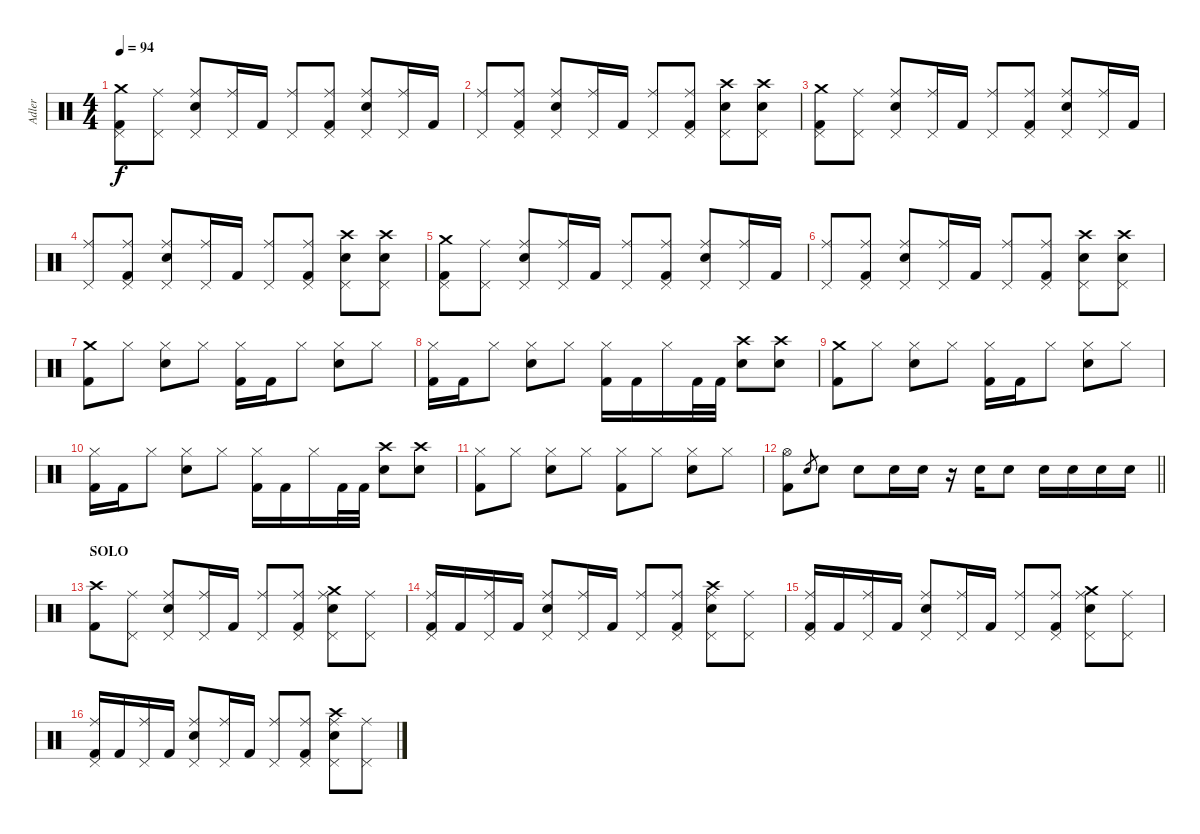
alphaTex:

\track ("Adler" "Adler") {instrument percussion}
\staff {score}
\articulation defaults
\ts (4 4)
\tempo 94
\clef neutral
\ks c
("Crash medium (hit)" "Kick (hit) 2" "Pedal Hi-Hat (hit)").8{dy f} ("Pedal Hi-Hat (hit)" "Ride (middle)").8 ("Snare (hit) 2" "Pedal Hi-Hat (hit)" "Ride (middle)").8 ("Pedal Hi-Hat (hit)" "Ride (middle)").16 "Kick (hit) 2".16 ("Pedal Hi-Hat (hit)" "Ride (middle)").8 ("Kick (hit) 2" "Pedal Hi-Hat (hit)" "Ride (middle)").8 ("Snare (hit) 2" "Pedal Hi-Hat (hit)" "Ride (middle)").8 ("Pedal Hi-Hat (hit)" "Ride (middle)").16 "Kick (hit) 2".16 |
("Pedal Hi-Hat (hit)" "Ride (middle)").8 ("Kick (hit) 2" "Pedal Hi-Hat (hit)" "Ride (middle)").8 ("Snare (hit) 2" "Pedal Hi-Hat (hit)" "Ride (middle)").8 ("Pedal Hi-Hat (hit)" "Ride (middle)").16 "Kick (hit) 2".16 ("Pedal Hi-Hat (hit)" "Ride (middle)").8 ("Kick (hit) 2" "Pedal Hi-Hat (hit)" "Ride (middle)").8 ("Crash high (hit)" "Snare (hit) 2" "Pedal Hi-Hat (hit)").8 ("Crash high (hit)" "Snare (hit) 2" "Pedal Hi-Hat (hit)").8 |
("Crash medium (hit)" "Kick (hit) 2" "Pedal Hi-Hat (hit)").8 ("Pedal Hi-Hat (hit)" "Ride (middle)").8 ("Snare (hit) 2" "Pedal Hi-Hat (hit)" "Ride (middle)").8 ("Pedal Hi-Hat (hit)" "Ride (middle)").16 "Kick (hit) 2".16 ("Pedal Hi-Hat (hit)" "Ride (middle)").8 ("Kick (hit) 2" "Pedal Hi-Hat (hit)" "Ride (middle)").8 ("Snare (hit) 2" "Pedal Hi-Hat (hit)" "Ride (middle)").8 ("Pedal Hi-Hat (hit)" "Ride (middle)").16 "Kick (hit) 2".16 |
("Pedal Hi-Hat (hit)" "Ride (middle)").8 ("Kick (hit) 2" "Pedal Hi-Hat (hit)" "Ride (middle)").8 ("Snare (hit) 2" "Pedal Hi-Hat (hit)" "Ride (middle)").8 ("Pedal Hi-Hat (hit)" "Ride (middle)").16 "Kick (hit) 2".16 ("Pedal Hi-Hat (hit)" "Ride (middle)").8 ("Kick (hit) 2" "Pedal Hi-Hat (hit)" "Ride (middle)").8 ("Crash high (hit)" "Snare (hit) 2" "Pedal Hi-Hat (hit)").8 ("Crash high (hit)" "Snare (hit) 2" "Pedal Hi-Hat (hit)").8 |
("Crash medium (hit)" "Kick (hit) 2" "Pedal Hi-Hat (hit)").8 ("Pedal Hi-Hat (hit)" "Ride (middle)").8 ("Snare (hit) 2" "Pedal Hi-Hat (hit)" "Ride (middle)").8 ("Pedal Hi-Hat (hit)" "Ride (middle)").16 "Kick (hit) 2".16 ("Pedal Hi-Hat (hit)" "Ride (middle)").8 ("Kick (hit) 2" "Pedal Hi-Hat (hit)" "Ride (middle)").8 ("Snare (hit) 2" "Pedal Hi-Hat (hit)" "Ride (middle)").8 ("Pedal Hi-Hat (hit)" "Ride (middle)").16 "Kick (hit) 2".16 |
("Pedal Hi-Hat (hit)" "Ride (middle)").8 ("Kick (hit) 2" "Pedal Hi-Hat (hit)" "Ride (middle)").8 ("Snare (hit) 2" "Pedal Hi-Hat (hit)" "Ride (middle)").8 ("Pedal Hi-Hat (hit)" "Ride (middle)").16 "Kick (hit) 2".16 ("Pedal Hi-Hat (hit)" "Ride (middle)").8 ("Kick (hit) 2" "Pedal Hi-Hat (hit)" "Ride (middle)").8 ("Crash high (hit)" "Snare (hit) 2" "Pedal Hi-Hat (hit)").8 ("Crash high (hit)" "Snare (hit) 2" "Pedal Hi-Hat (hit)").8 |
("Crash medium (hit)" "Kick (hit) 2").8 "Hi-Hat (closed)".8 ("Hi-Hat (closed)" "Snare (hit) 2").8 "Hi-Hat (closed)".8 ("Hi-Hat (closed)" "Kick (hit) 2").16 "Kick (hit) 2".16 "Hi-Hat (closed)".8 ("Hi-Hat (closed)" "Snare (hit) 2").8 "Hi-Hat (closed)".8 |
("Hi-Hat (closed)" "Kick (hit) 2").16 "Kick (hit) 2".16 "Hi-Hat (closed)".8 ("Hi-Hat (closed)" "Snare (hit) 2").8 "Hi-Hat (closed)".8 ("Hi-Hat (closed)" "Kick (hit) 2").16 "Kick (hit) 2".16 "Hi-Hat (closed)".16 "Kick (hit) 2".32 "Kick (hit) 2".32 ("Crash high (hit)" "Snare (hit) 2").8 ("Crash high (hit)" "Snare (hit) 2").8 |
("Crash medium (hit)" "Kick (hit) 2").8 "Hi-Hat (closed)".8 ("Hi-Hat (closed)" "Snare (hit) 2").8 "Hi-Hat (closed)".8 ("Hi-Hat (closed)" "Kick (hit) 2").16 "Kick (hit) 2".16 "Hi-Hat (closed)".8 ("Hi-Hat (closed)" "Snare (hit) 2").8 "Hi-Hat (closed)".8 |
("Hi-Hat (closed)" "Kick (hit) 2").16 "Kick (hit) 2".16 "Hi-Hat (closed)".8 ("Hi-Hat (closed)" "Snare (hit) 2").8 "Hi-Hat (closed)".8 ("Hi-Hat (closed)" "Kick (hit) 2").16 "Kick (hit) 2".16 "Hi-Hat (closed)".16 "Kick (hit) 2".32 "Kick (hit) 2".32 ("Crash high (hit)" "Snare (hit) 2").8 ("Crash high (hit)" "Snare (hit) 2").8 |
("Hi-Hat (closed)" "Kick (hit) 2").8 "Hi-Hat (closed)".8 ("Hi-Hat (closed)" "Snare (hit) 2").8 "Hi-Hat (closed)".8 ("Hi-Hat (closed)" "Kick (hit) 2").8 "Hi-Hat (closed)".8 ("Hi-Hat (closed)" "Snare (hit) 2").8 "Hi-Hat (closed)".8 |
\barLineRight lightlight
("Hi-Hat (open)" "Kick (hit) 2").8 "Snare (hit) 2".8{gr} "Snare (hit) 2".8 "Snare (hit) 2".8 "Snare (hit) 2".16 "Snare (hit) 2".16 r.16 "Snare (hit) 2".16 "Snare (hit) 2".8 "Snare (hit) 2".16 "Snare (hit) 2".16 "Snare (hit) 2".16 "Snare (hit) 2".16 |
\section ("" "SOLO")
("Crash high (hit)" "Kick (hit) 2").8 ("Pedal Hi-Hat (hit)" "Ride (middle)").8 ("Snare (hit) 2" "Pedal Hi-Hat (hit)" "Ride (middle)").8 ("Pedal Hi-Hat (hit)" "Ride (middle)").16 "Kick (hit) 2".16 ("Pedal Hi-Hat (hit)" "Ride (middle)").8 ("Kick (hit) 2" "Pedal Hi-Hat (hit)" "Ride (middle)").8 ("Crash medium (hit)" "Snare (hit) 2" "Pedal Hi-Hat (hit)" "Ride (middle)").8 ("Pedal Hi-Hat (hit)" "Ride (middle)").8 |
("Kick (hit) 2" "Pedal Hi-Hat (hit)" "Ride (middle)").16 "Kick (hit) 2".16 ("Pedal Hi-Hat (hit)" "Ride (middle)").16 "Kick (hit) 2".16 ("Snare (hit) 2" "Pedal Hi-Hat (hit)" "Ride (middle)").8 ("Pedal Hi-Hat (hit)" "Ride (middle)").16 "Kick (hit) 2".16 ("Pedal Hi-Hat (hit)" "Ride (middle)").8 ("Kick (hit) 2" "Pedal Hi-Hat (hit)" "Ride (middle)").8 ("Crash high (hit)" "Snare (hit) 2" "Pedal Hi-Hat (hit)" "Ride (middle)").8 ("Pedal Hi-Hat (hit)" "Ride (middle)").8 |
("Kick (hit) 2" "Pedal Hi-Hat (hit)" "Ride (middle)").16 "Kick (hit) 2".16 ("Pedal Hi-Hat (hit)" "Ride (middle)").16 "Kick (hit) 2".16 ("Snare (hit) 2" "Pedal Hi-Hat (hit)" "Ride (middle)").8 ("Pedal Hi-Hat (hit)" "Ride (middle)").16 "Kick (hit) 2".16 ("Pedal Hi-Hat (hit)" "Ride (middle)").8 ("Kick (hit) 2" "Pedal Hi-Hat (hit)" "Ride (middle)").8 ("Crash medium (hit)" "Snare (hit) 2" "Pedal Hi-Hat (hit)" "Ride (middle)").8 ("Pedal Hi-Hat (hit)" "Ride (middle)").8 |
("Kick (hit) 2" "Pedal Hi-Hat (hit)" "Ride (middle)").16 "Kick (hit) 2".16 ("Pedal Hi-Hat (hit)" "Ride (middle)").16 "Kick (hit) 2".16 ("Snare (hit) 2" "Pedal Hi-Hat (hit)" "Ride (middle)").8 ("Pedal Hi-Hat (hit)" "Ride (middle)").16 "Kick (hit) 2".16 ("Pedal Hi-Hat (hit)" "Ride (middle)").8 ("Kick (hit) 2" "Pedal Hi-Hat (hit)" "Ride (middle)").8 ("Crash high (hit)" "Snare (hit) 2" "Pedal Hi-Hat (hit)" "Ride (middle)").8 ("Pedal Hi-Hat (hit)" "Ride (middle)").8
